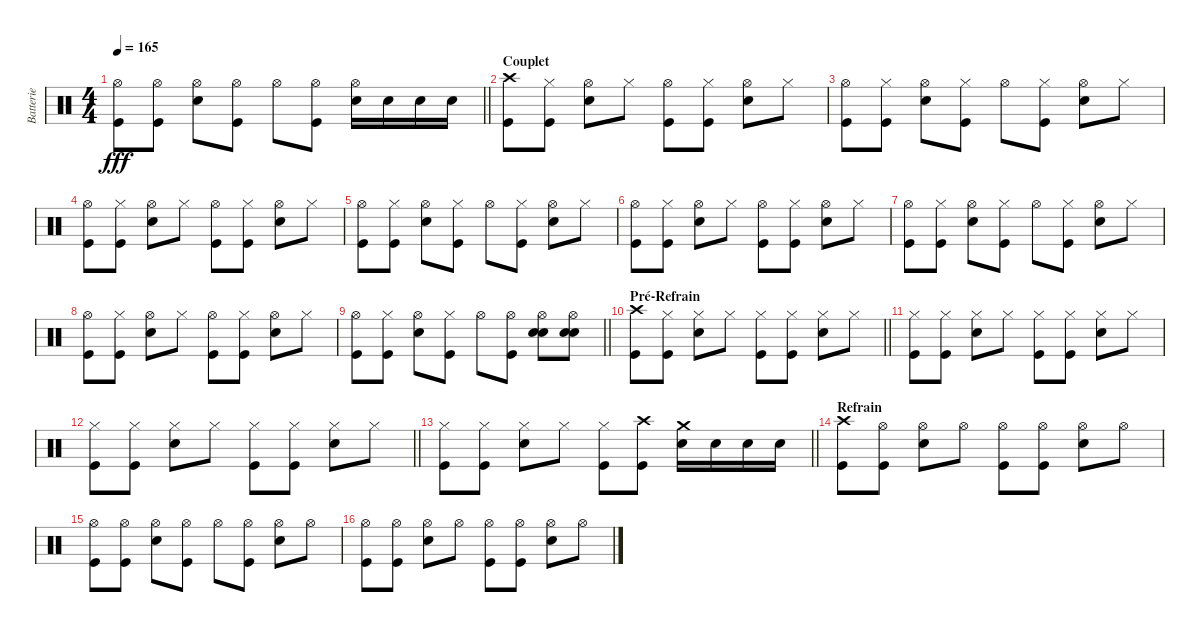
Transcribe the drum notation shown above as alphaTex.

\track ("Batterie" "Batterie") {instrument percussion}
\staff {score}
\articulation defaults
\ts (4 4)
\tempo 165
\clef neutral
\barLineRight lightlight
\ks c
("Hi-Hat (open)" "Kick (hit)").8{dy fff} ("Hi-Hat (open)" "Kick (hit)").8 ("Hi-Hat (open)" "Electric Snare (hit)").8 ("Hi-Hat (open)" "Kick (hit)").8 "Hi-Hat (open)".8 ("Hi-Hat (open)" "Kick (hit)").8 ("Hi-Hat (open)" "Electric Snare (hit)").16 "Electric Snare (hit)".16 "Electric Snare (hit)".16 "Electric Snare (hit)".16 |
\section ("" "Couplet")
("Crash high (hit)" "Kick (hit)").8 ("Hi-Hat (closed)" "Kick (hit)").8 ("Hi-Hat (open)" "Electric Snare (hit)").8 "Hi-Hat (closed)".8 ("Hi-Hat (open)" "Kick (hit)").8 ("Hi-Hat (closed)" "Kick (hit)").8 ("Hi-Hat (open)" "Electric Snare (hit)").8 "Hi-Hat (closed)".8 |
("Hi-Hat (open)" "Kick (hit)").8 ("Hi-Hat (closed)" "Kick (hit)").8 ("Hi-Hat (open)" "Electric Snare (hit)").8 ("Hi-Hat (closed)" "Kick (hit)").8 "Hi-Hat (open)".8 ("Hi-Hat (closed)" "Kick (hit)").8 ("Hi-Hat (open)" "Electric Snare (hit)").8 "Hi-Hat (closed)".8 |
("Hi-Hat (open)" "Kick (hit)").8 ("Hi-Hat (closed)" "Kick (hit)").8 ("Hi-Hat (open)" "Electric Snare (hit)").8 "Hi-Hat (closed)".8 ("Hi-Hat (open)" "Kick (hit)").8 ("Hi-Hat (closed)" "Kick (hit)").8 ("Hi-Hat (open)" "Electric Snare (hit)").8 "Hi-Hat (closed)".8 |
("Hi-Hat (open)" "Kick (hit)").8 ("Hi-Hat (closed)" "Kick (hit)").8 ("Hi-Hat (open)" "Electric Snare (hit)").8 ("Hi-Hat (closed)" "Kick (hit)").8 "Hi-Hat (open)".8 ("Hi-Hat (closed)" "Kick (hit)").8 ("Hi-Hat (open)" "Electric Snare (hit)").8 "Hi-Hat (closed)".8 |
("Hi-Hat (open)" "Kick (hit)").8 ("Hi-Hat (closed)" "Kick (hit)").8 ("Hi-Hat (open)" "Electric Snare (hit)").8 "Hi-Hat (closed)".8 ("Hi-Hat (open)" "Kick (hit)").8 ("Hi-Hat (closed)" "Kick (hit)").8 ("Hi-Hat (open)" "Electric Snare (hit)").8 "Hi-Hat (closed)".8 |
("Hi-Hat (open)" "Kick (hit)").8 ("Hi-Hat (closed)" "Kick (hit)").8 ("Hi-Hat (open)" "Electric Snare (hit)").8 ("Hi-Hat (closed)" "Kick (hit)").8 "Hi-Hat (open)".8 ("Hi-Hat (closed)" "Kick (hit)").8 ("Hi-Hat (open)" "Electric Snare (hit)").8 "Hi-Hat (closed)".8 |
("Hi-Hat (open)" "Kick (hit)").8 ("Hi-Hat (closed)" "Kick (hit)").8 ("Hi-Hat (open)" "Electric Snare (hit)").8 "Hi-Hat (closed)".8 ("Hi-Hat (open)" "Kick (hit)").8 ("Hi-Hat (closed)" "Kick (hit)").8 ("Hi-Hat (open)" "Electric Snare (hit)").8 "Hi-Hat (closed)".8 |
\barLineRight lightlight
("Hi-Hat (open)" "Kick (hit)").8 ("Hi-Hat (closed)" "Kick (hit)").8 ("Hi-Hat (open)" "Electric Snare (hit)").8 ("Hi-Hat (closed)" "Kick (hit)").8 "Hi-Hat (open)".8 ("Hi-Hat (open)" "Kick (hit)").8 ("Hi-Hat (open)" "Snare (hit) 2" "Electric Snare (hit)").8 ("Hi-Hat (open)" "Snare (hit) 2" "Electric Snare (hit)").8 |
\section ("" "Pré-Refrain")
\barLineRight lightlight
("Crash high (hit)" "Kick (hit)").8 ("Hi-Hat (closed)" "Kick (hit)").8 ("Hi-Hat (closed)" "Electric Snare (hit)").8 "Hi-Hat (closed)".8 ("Hi-Hat (closed)" "Kick (hit)").8 ("Hi-Hat (closed)" "Kick (hit)").8 ("Hi-Hat (closed)" "Electric Snare (hit)").8 "Hi-Hat (closed)".8 |
("Hi-Hat (closed)" "Kick (hit)").8 ("Hi-Hat (closed)" "Kick (hit)").8 ("Hi-Hat (closed)" "Electric Snare (hit)").8 "Hi-Hat (closed)".8 ("Hi-Hat (closed)" "Kick (hit)").8 ("Hi-Hat (closed)" "Kick (hit)").8 ("Hi-Hat (closed)" "Electric Snare (hit)").8 "Hi-Hat (closed)".8 |
\barLineRight lightlight
("Hi-Hat (closed)" "Kick (hit)").8 ("Hi-Hat (closed)" "Kick (hit)").8 ("Hi-Hat (closed)" "Electric Snare (hit)").8 "Hi-Hat (closed)".8 ("Hi-Hat (closed)" "Kick (hit)").8 ("Hi-Hat (closed)" "Kick (hit)").8 ("Hi-Hat (closed)" "Electric Snare (hit)").8 "Hi-Hat (closed)".8 |
\barLineRight lightlight
("Hi-Hat (closed)" "Kick (hit)").8 ("Hi-Hat (closed)" "Kick (hit)").8 ("Hi-Hat (closed)" "Electric Snare (hit)").8 "Hi-Hat (closed)".8 ("Hi-Hat (closed)" "Kick (hit)").8 ("Crash high (hit)" "Kick (hit)").8 ("Crash medium (hit)" "Electric Snare (hit)").16 "Electric Snare (hit)".16 "Electric Snare (hit)".16 "Electric Snare (hit)".16 |
\section ("" "Refrain")
("Crash high (hit)" "Kick (hit)").8 ("Hi-Hat (open)" "Kick (hit)").8 ("Hi-Hat (open)" "Electric Snare (hit)").8 "Hi-Hat (open)".8 ("Hi-Hat (open)" "Kick (hit)").8 ("Hi-Hat (open)" "Kick (hit)").8 ("Hi-Hat (open)" "Electric Snare (hit)").8 "Hi-Hat (open)".8 |
("Hi-Hat (open)" "Kick (hit)").8 ("Hi-Hat (open)" "Kick (hit)").8 ("Hi-Hat (open)" "Electric Snare (hit)").8 ("Hi-Hat (open)" "Kick (hit)").8 "Hi-Hat (open)".8 ("Hi-Hat (open)" "Kick (hit)").8 ("Hi-Hat (open)" "Electric Snare (hit)").8 "Hi-Hat (open)".8 |
("Hi-Hat (open)" "Kick (hit)").8 ("Hi-Hat (open)" "Kick (hit)").8 ("Hi-Hat (open)" "Electric Snare (hit)").8 "Hi-Hat (open)".8 ("Hi-Hat (open)" "Kick (hit)").8 ("Hi-Hat (open)" "Kick (hit)").8 ("Hi-Hat (open)" "Electric Snare (hit)").8 "Hi-Hat (open)".8
